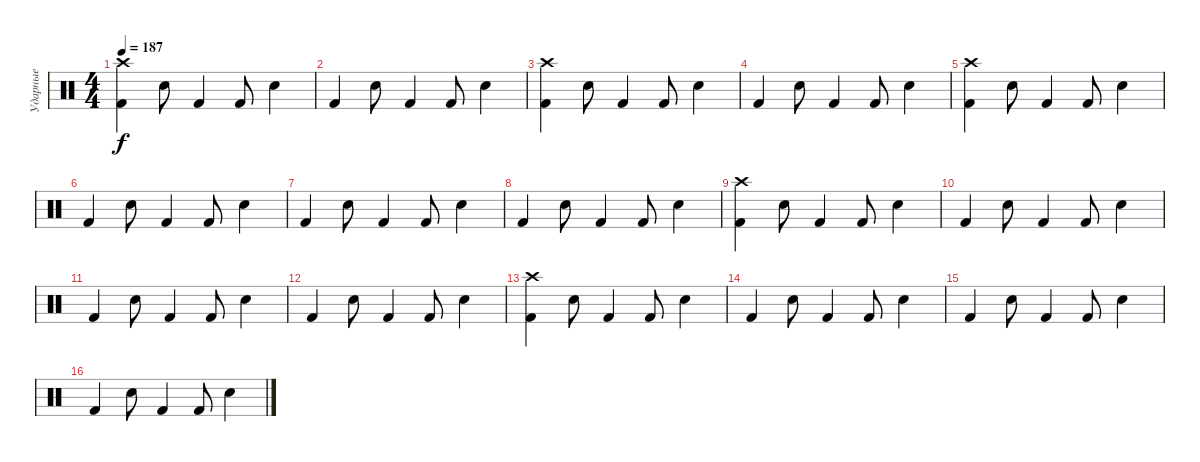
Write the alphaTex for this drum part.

\track ("Ударные" "Ударные") {instrument percussion}
\staff {score}
\articulation defaults
\ts (4 4)
\tempo 187
\clef neutral
\ks c
("Crash high (hit)" "Kick (hit) 2").4{dy f} "Snare (hit) 2".8 "Kick (hit) 2".4 "Kick (hit) 2".8 "Snare (hit) 2".4 |
"Kick (hit) 2".4 "Snare (hit) 2".8 "Kick (hit) 2".4 "Kick (hit) 2".8 "Snare (hit) 2".4 |
("Crash high (hit)" "Kick (hit) 2").4 "Snare (hit) 2".8 "Kick (hit) 2".4 "Kick (hit) 2".8 "Snare (hit) 2".4 |
"Kick (hit) 2".4 "Snare (hit) 2".8 "Kick (hit) 2".4 "Kick (hit) 2".8 "Snare (hit) 2".4 |
("Crash high (hit)" "Kick (hit) 2").4 "Snare (hit) 2".8 "Kick (hit) 2".4 "Kick (hit) 2".8 "Snare (hit) 2".4 |
"Kick (hit) 2".4 "Snare (hit) 2".8 "Kick (hit) 2".4 "Kick (hit) 2".8 "Snare (hit) 2".4 |
"Kick (hit) 2".4 "Snare (hit) 2".8 "Kick (hit) 2".4 "Kick (hit) 2".8 "Snare (hit) 2".4 |
"Kick (hit) 2".4 "Snare (hit) 2".8 "Kick (hit) 2".4 "Kick (hit) 2".8 "Snare (hit) 2".4 |
("Crash high (hit)" "Kick (hit) 2").4 "Snare (hit) 2".8 "Kick (hit) 2".4 "Kick (hit) 2".8 "Snare (hit) 2".4 |
"Kick (hit) 2".4 "Snare (hit) 2".8 "Kick (hit) 2".4 "Kick (hit) 2".8 "Snare (hit) 2".4 |
"Kick (hit) 2".4 "Snare (hit) 2".8 "Kick (hit) 2".4 "Kick (hit) 2".8 "Snare (hit) 2".4 |
"Kick (hit) 2".4 "Snare (hit) 2".8 "Kick (hit) 2".4 "Kick (hit) 2".8 "Snare (hit) 2".4 |
("Crash high (hit)" "Kick (hit) 2").4 "Snare (hit) 2".8 "Kick (hit) 2".4 "Kick (hit) 2".8 "Snare (hit) 2".4 |
"Kick (hit) 2".4 "Snare (hit) 2".8 "Kick (hit) 2".4 "Kick (hit) 2".8 "Snare (hit) 2".4 |
"Kick (hit) 2".4 "Snare (hit) 2".8 "Kick (hit) 2".4 "Kick (hit) 2".8 "Snare (hit) 2".4 |
"Kick (hit) 2".4 "Snare (hit) 2".8 "Kick (hit) 2".4 "Kick (hit) 2".8 "Snare (hit) 2".4
